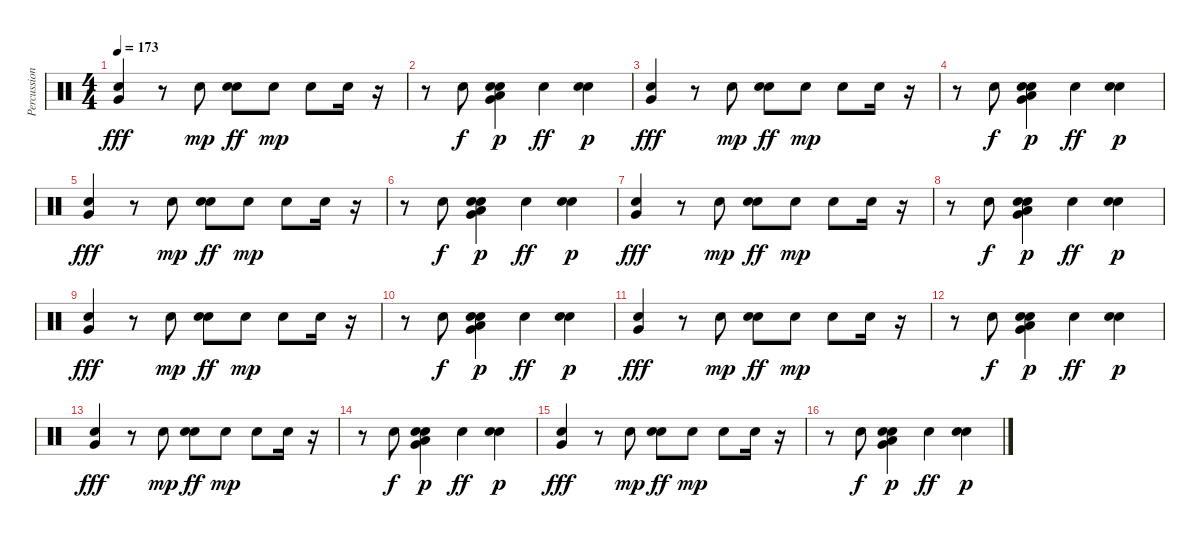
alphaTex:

\track ("Percussion" "Percussion") {instrument percussion}
\staff {score}
\articulation defaults
\ts (4 4)
\tempo 173
\clef neutral
\ks c
("Hand Clap (hit)" "Very Low Tom (hit)").4{dy fff} r.8 "Hand Clap (hit)".8{dy mp} ("Snare (hit) 2" "Hand Clap (hit)").8{dy ff} "Hand Clap (hit)".8{dy mp} "Hand Clap (hit)".8 "Hand Clap (hit)".16 r.16 |
r.8 "Hand Clap (hit)".8{dy f} ("Very Low Tom (hit)" "Hand Clap (hit)" "Snare (hit) 2" "Low Floor Tom (hit)").4{dy p} "Hand Clap (hit)".4{dy ff} ("Snare (hit) 2" "Hand Clap (hit)").4{dy p} |
("Hand Clap (hit)" "Very Low Tom (hit)").4{dy fff} r.8 "Hand Clap (hit)".8{dy mp} ("Snare (hit) 2" "Hand Clap (hit)").8{dy ff} "Hand Clap (hit)".8{dy mp} "Hand Clap (hit)".8 "Hand Clap (hit)".16 r.16 |
r.8 "Hand Clap (hit)".8{dy f} ("Very Low Tom (hit)" "Hand Clap (hit)" "Snare (hit) 2" "Low Floor Tom (hit)").4{dy p} "Hand Clap (hit)".4{dy ff} ("Snare (hit) 2" "Hand Clap (hit)").4{dy p} |
("Hand Clap (hit)" "Very Low Tom (hit)").4{dy fff} r.8 "Hand Clap (hit)".8{dy mp} ("Snare (hit) 2" "Hand Clap (hit)").8{dy ff} "Hand Clap (hit)".8{dy mp} "Hand Clap (hit)".8 "Hand Clap (hit)".16 r.16 |
r.8 "Hand Clap (hit)".8{dy f} ("Very Low Tom (hit)" "Hand Clap (hit)" "Snare (hit) 2" "Low Floor Tom (hit)").4{dy p} "Hand Clap (hit)".4{dy ff} ("Snare (hit) 2" "Hand Clap (hit)").4{dy p} |
("Hand Clap (hit)" "Very Low Tom (hit)").4{dy fff} r.8 "Hand Clap (hit)".8{dy mp} ("Snare (hit) 2" "Hand Clap (hit)").8{dy ff} "Hand Clap (hit)".8{dy mp} "Hand Clap (hit)".8 "Hand Clap (hit)".16 r.16 |
r.8 "Hand Clap (hit)".8{dy f} ("Very Low Tom (hit)" "Hand Clap (hit)" "Snare (hit) 2" "Low Floor Tom (hit)").4{dy p} "Hand Clap (hit)".4{dy ff} ("Snare (hit) 2" "Hand Clap (hit)").4{dy p} |
("Hand Clap (hit)" "Very Low Tom (hit)").4{dy fff} r.8 "Hand Clap (hit)".8{dy mp} ("Snare (hit) 2" "Hand Clap (hit)").8{dy ff} "Hand Clap (hit)".8{dy mp} "Hand Clap (hit)".8 "Hand Clap (hit)".16 r.16 |
r.8 "Hand Clap (hit)".8{dy f} ("Very Low Tom (hit)" "Hand Clap (hit)" "Snare (hit) 2" "Low Floor Tom (hit)").4{dy p} "Hand Clap (hit)".4{dy ff} ("Snare (hit) 2" "Hand Clap (hit)").4{dy p} |
("Hand Clap (hit)" "Very Low Tom (hit)").4{dy fff} r.8 "Hand Clap (hit)".8{dy mp} ("Snare (hit) 2" "Hand Clap (hit)").8{dy ff} "Hand Clap (hit)".8{dy mp} "Hand Clap (hit)".8 "Hand Clap (hit)".16 r.16 |
r.8 "Hand Clap (hit)".8{dy f} ("Very Low Tom (hit)" "Hand Clap (hit)" "Snare (hit) 2" "Low Floor Tom (hit)").4{dy p} "Hand Clap (hit)".4{dy ff} ("Snare (hit) 2" "Hand Clap (hit)").4{dy p} |
("Hand Clap (hit)" "Very Low Tom (hit)").4{dy fff} r.8 "Hand Clap (hit)".8{dy mp} ("Snare (hit) 2" "Hand Clap (hit)").8{dy ff} "Hand Clap (hit)".8{dy mp} "Hand Clap (hit)".8 "Hand Clap (hit)".16 r.16 |
r.8 "Hand Clap (hit)".8{dy f} ("Very Low Tom (hit)" "Hand Clap (hit)" "Snare (hit) 2" "Low Floor Tom (hit)").4{dy p} "Hand Clap (hit)".4{dy ff} ("Snare (hit) 2" "Hand Clap (hit)").4{dy p} |
("Hand Clap (hit)" "Very Low Tom (hit)").4{dy fff} r.8 "Hand Clap (hit)".8{dy mp} ("Snare (hit) 2" "Hand Clap (hit)").8{dy ff} "Hand Clap (hit)".8{dy mp} "Hand Clap (hit)".8 "Hand Clap (hit)".16 r.16 |
r.8 "Hand Clap (hit)".8{dy f} ("Very Low Tom (hit)" "Hand Clap (hit)" "Snare (hit) 2" "Low Floor Tom (hit)").4{dy p} "Hand Clap (hit)".4{dy ff} ("Snare (hit) 2" "Hand Clap (hit)").4{dy p}
